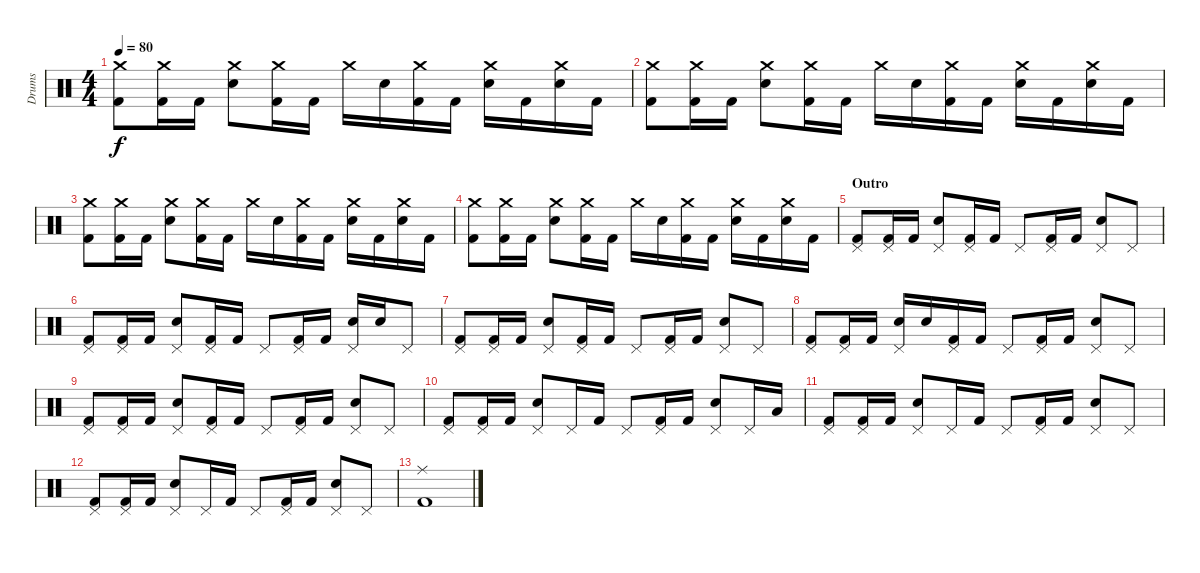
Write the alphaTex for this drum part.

\track ("Drums" "Drums") {instrument percussion}
\staff {score}
\articulation defaults
\ts (4 4)
\tempo 80
\clef neutral
\ks c
("Crash medium (hit)" "Kick (hit) 2").8{dy f} ("Crash medium (hit)" "Kick (hit) 2").16 "Kick (hit) 2".16 ("Crash medium (hit)" "Electric Snare (hit)").8 ("Crash medium (hit)" "Kick (hit) 2").16 "Kick (hit) 2".16 "Crash medium (hit)".16 "Electric Snare (hit)".16 ("Crash medium (hit)" "Kick (hit) 2").16 "Kick (hit) 2".16 ("Crash medium (hit)" "Electric Snare (hit)").16 "Kick (hit) 2".16 ("Crash medium (hit)" "Electric Snare (hit)").16 "Kick (hit) 2".16 |
("Crash medium (hit)" "Kick (hit) 2").8 ("Crash medium (hit)" "Kick (hit) 2").16 "Kick (hit) 2".16 ("Crash medium (hit)" "Electric Snare (hit)").8 ("Crash medium (hit)" "Kick (hit) 2").16 "Kick (hit) 2".16 "Crash medium (hit)".16 "Electric Snare (hit)".16 ("Crash medium (hit)" "Kick (hit) 2").16 "Kick (hit) 2".16 ("Crash medium (hit)" "Electric Snare (hit)").16 "Kick (hit) 2".16 ("Crash medium (hit)" "Electric Snare (hit)").16 "Kick (hit) 2".16 |
("Crash medium (hit)" "Kick (hit) 2").8 ("Crash medium (hit)" "Kick (hit) 2").16 "Kick (hit) 2".16 ("Crash medium (hit)" "Electric Snare (hit)").8 ("Crash medium (hit)" "Kick (hit) 2").16 "Kick (hit) 2".16 "Crash medium (hit)".16 "Electric Snare (hit)".16 ("Crash medium (hit)" "Kick (hit) 2").16 "Kick (hit) 2".16 ("Crash medium (hit)" "Electric Snare (hit)").16 "Kick (hit) 2".16 ("Crash medium (hit)" "Electric Snare (hit)").16 "Kick (hit) 2".16 |
("Crash medium (hit)" "Kick (hit) 2").8 ("Crash medium (hit)" "Kick (hit) 2").16 "Kick (hit) 2".16 ("Crash medium (hit)" "Electric Snare (hit)").8 ("Crash medium (hit)" "Kick (hit) 2").16 "Kick (hit) 2".16 "Crash medium (hit)".16 "Electric Snare (hit)".16 ("Crash medium (hit)" "Kick (hit) 2").16 "Kick (hit) 2".16 ("Crash medium (hit)" "Electric Snare (hit)").16 "Kick (hit) 2".16 ("Crash medium (hit)" "Electric Snare (hit)").16 "Kick (hit) 2".16 |
\section ("" "Outro")
("Pedal Hi-Hat (hit)" "Kick (hit) 2").8 ("Pedal Hi-Hat (hit)" "Kick (hit) 2").16 "Kick (hit) 2".16 ("Pedal Hi-Hat (hit)" "Electric Snare (hit)").8 ("Pedal Hi-Hat (hit)" "Kick (hit) 2").16 "Kick (hit) 2".16 "Pedal Hi-Hat (hit)".8 ("Pedal Hi-Hat (hit)" "Kick (hit) 2").16 "Kick (hit) 2".16 ("Pedal Hi-Hat (hit)" "Electric Snare (hit)").8 "Pedal Hi-Hat (hit)".8 |
("Pedal Hi-Hat (hit)" "Kick (hit) 2").8 ("Pedal Hi-Hat (hit)" "Kick (hit) 2").16 "Kick (hit) 2".16 ("Pedal Hi-Hat (hit)" "Electric Snare (hit)").8 ("Pedal Hi-Hat (hit)" "Kick (hit) 2").16 "Kick (hit) 2".16 "Pedal Hi-Hat (hit)".8 ("Pedal Hi-Hat (hit)" "Kick (hit) 2").16 "Kick (hit) 2".16 ("Pedal Hi-Hat (hit)" "Electric Snare (hit)").16 "Electric Snare (hit)".16 "Pedal Hi-Hat (hit)".8 |
("Pedal Hi-Hat (hit)" "Kick (hit) 2").8 ("Pedal Hi-Hat (hit)" "Kick (hit) 2").16 "Kick (hit) 2".16 ("Pedal Hi-Hat (hit)" "Electric Snare (hit)").8 ("Pedal Hi-Hat (hit)" "Kick (hit) 2").16 "Kick (hit) 2".16 "Pedal Hi-Hat (hit)".8 ("Pedal Hi-Hat (hit)" "Kick (hit) 2").16 "Kick (hit) 2".16 ("Pedal Hi-Hat (hit)" "Electric Snare (hit)").8 "Pedal Hi-Hat (hit)".8 |
("Pedal Hi-Hat (hit)" "Kick (hit) 2").8 ("Pedal Hi-Hat (hit)" "Kick (hit) 2").16 "Kick (hit) 2".16 ("Pedal Hi-Hat (hit)" "Electric Snare (hit)").16 "Electric Snare (hit)".16 ("Pedal Hi-Hat (hit)" "Kick (hit) 2").16 "Kick (hit) 2".16 "Pedal Hi-Hat (hit)".8 ("Pedal Hi-Hat (hit)" "Kick (hit) 2").16 "Kick (hit) 2".16 ("Pedal Hi-Hat (hit)" "Electric Snare (hit)").8 "Pedal Hi-Hat (hit)".8 |
("Pedal Hi-Hat (hit)" "Kick (hit) 2").8 ("Pedal Hi-Hat (hit)" "Kick (hit) 2").16 "Kick (hit) 2".16 ("Pedal Hi-Hat (hit)" "Electric Snare (hit)").8 ("Pedal Hi-Hat (hit)" "Kick (hit) 2").16 "Kick (hit) 2".16 "Pedal Hi-Hat (hit)".8 ("Pedal Hi-Hat (hit)" "Kick (hit) 2").16 "Kick (hit) 2".16 ("Pedal Hi-Hat (hit)" "Electric Snare (hit)").8 "Pedal Hi-Hat (hit)".8 |
("Pedal Hi-Hat (hit)" "Kick (hit) 2").8 ("Pedal Hi-Hat (hit)" "Kick (hit) 2").16 "Kick (hit) 2".16 ("Pedal Hi-Hat (hit)" "Electric Snare (hit)").8 "Pedal Hi-Hat (hit)".16 "Kick (hit) 2".16 "Pedal Hi-Hat (hit)".8 ("Pedal Hi-Hat (hit)" "Kick (hit) 2").16 "Kick (hit) 2".16 ("Pedal Hi-Hat (hit)" "Electric Snare (hit)").8 "Pedal Hi-Hat (hit)".16 "Low Tom (hit)".16 |
("Pedal Hi-Hat (hit)" "Kick (hit) 2").8 ("Pedal Hi-Hat (hit)" "Kick (hit) 2").16 "Kick (hit) 2".16 ("Pedal Hi-Hat (hit)" "Electric Snare (hit)").8 "Pedal Hi-Hat (hit)".16 "Kick (hit) 2".16 "Pedal Hi-Hat (hit)".8 ("Pedal Hi-Hat (hit)" "Kick (hit) 2").16 "Kick (hit) 2".16 ("Pedal Hi-Hat (hit)" "Electric Snare (hit)").8 "Pedal Hi-Hat (hit)".8 |
("Pedal Hi-Hat (hit)" "Kick (hit) 2").8 ("Pedal Hi-Hat (hit)" "Kick (hit) 2").16 "Kick (hit) 2".16 ("Pedal Hi-Hat (hit)" "Electric Snare (hit)").8 "Pedal Hi-Hat (hit)".16 "Kick (hit) 2".16 "Pedal Hi-Hat (hit)".8 ("Pedal Hi-Hat (hit)" "Kick (hit) 2").16 "Kick (hit) 2".16 ("Pedal Hi-Hat (hit)" "Electric Snare (hit)").8 "Pedal Hi-Hat (hit)".8 |
("Ride (middle)" "Kick (hit) 2").1
